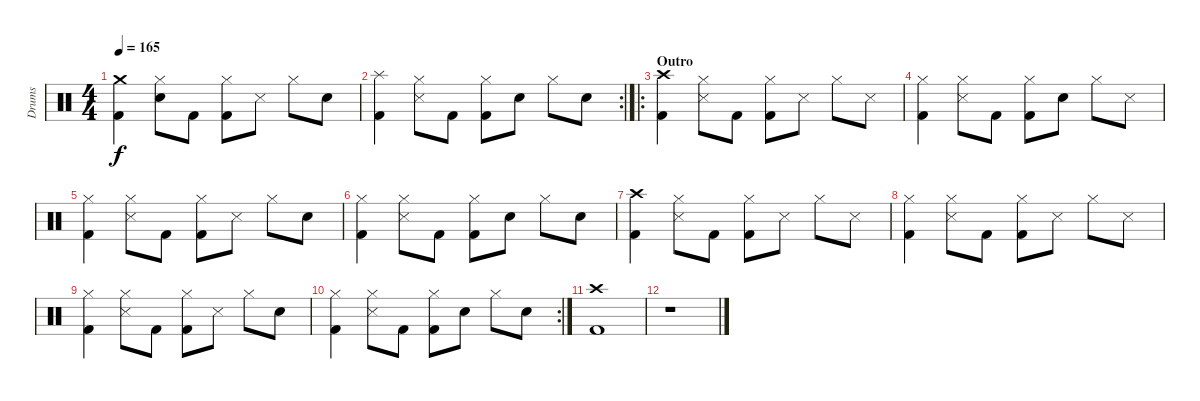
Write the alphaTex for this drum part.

\track ("Drums" "Drums") {instrument percussion}
\staff {score}
\articulation defaults
\ts (4 4)
\tempo 165
\clef neutral
\ks c
("Kick (hit) 2" "Crash medium (hit)").4{dy f} ("Snare (hit) 2" "Hi-Hat (closed)").8 "Kick (hit) 2".8 ("Kick (hit) 2" "Hi-Hat (closed)").8 "Snare (side stick) 3".8 "Hi-Hat (closed)".8 "Snare (hit) 2".8 |
\rc 2
("Kick (hit) 2" "Splash (hit)").4 ("Snare (side stick) 3" "Hi-Hat (closed)").8 "Kick (hit) 2".8 ("Kick (hit) 2" "Hi-Hat (closed)").8 "Snare (hit) 2".8 "Hi-Hat (closed)".8 "Snare (hit) 2".8 |
\ro
\section ("" "Outro")
("Kick (hit) 2" "Crash high (hit)").4 ("Snare (side stick) 3" "Hi-Hat (closed)").8 "Kick (hit) 2".8 ("Kick (hit) 2" "Hi-Hat (closed)").8 "Snare (side stick) 3".8 "Hi-Hat (closed)".8 "Snare (side stick) 3".8 |
("Kick (hit) 2" "Hi-Hat (closed)").4 ("Snare (side stick) 3" "Hi-Hat (closed)").8 "Kick (hit) 2".8 ("Kick (hit) 2" "Hi-Hat (closed)").8 "Snare (hit) 2".8 "Hi-Hat (closed)".8 "Snare (side stick) 3".8 |
("Kick (hit) 2" "Hi-Hat (closed)").4 ("Snare (side stick) 3" "Hi-Hat (closed)").8 "Kick (hit) 2".8 ("Kick (hit) 2" "Hi-Hat (closed)").8 "Snare (side stick) 3".8 "Hi-Hat (closed)".8 "Snare (hit) 2".8 |
("Kick (hit) 2" "Hi-Hat (closed)").4 ("Snare (side stick) 3" "Hi-Hat (closed)").8 "Kick (hit) 2".8 ("Kick (hit) 2" "Hi-Hat (closed)").8 "Snare (hit) 2".8 "Hi-Hat (closed)".8 "Snare (hit) 2".8 |
("Kick (hit) 2" "Crash high (hit)").4 ("Snare (side stick) 3" "Hi-Hat (closed)").8 "Kick (hit) 2".8 ("Kick (hit) 2" "Hi-Hat (closed)").8 "Snare (side stick) 3".8 "Hi-Hat (closed)".8 "Snare (side stick) 3".8 |
("Kick (hit) 2" "Hi-Hat (closed)").4 ("Snare (side stick) 3" "Hi-Hat (closed)").8 "Kick (hit) 2".8 ("Kick (hit) 2" "Hi-Hat (closed)").8 "Snare (side stick) 3".8 "Hi-Hat (closed)".8 "Snare (side stick) 3".8 |
("Kick (hit) 2" "Hi-Hat (closed)").4 ("Snare (side stick) 3" "Hi-Hat (closed)").8 "Kick (hit) 2".8 ("Kick (hit) 2" "Hi-Hat (closed)").8 "Snare (side stick) 3".8 "Hi-Hat (closed)".8 "Snare (hit) 2".8 |
\rc 2
("Kick (hit) 2" "Hi-Hat (closed)").4 ("Snare (side stick) 3" "Hi-Hat (closed)").8 "Kick (hit) 2".8 ("Kick (hit) 2" "Hi-Hat (closed)").8 "Snare (hit) 2".8 "Hi-Hat (closed)".8 "Snare (hit) 2".8 |
("Kick (hit) 2" "Crash high (hit)").1 |
r.1
